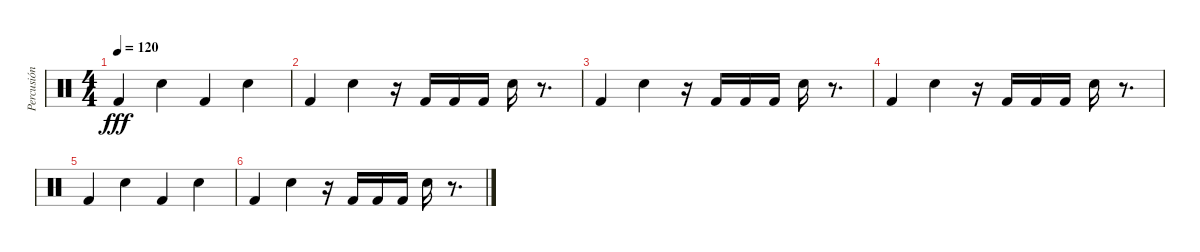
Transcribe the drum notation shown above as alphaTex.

\track ("Percusión" "Percusión") {instrument percussion}
\staff {score}
\articulation defaults
\ts (4 4)
\tempo 120
\clef neutral
\ks c "Kick (hit) 2".4{dy fff} "Snare (hit) 2".4 "Kick (hit) 2".4 "Snare (hit) 2".4
|
"Kick (hit) 2".4 "Snare (hit) 2".4 r.16 "Kick (hit) 2".16 "Kick (hit) 2".16 "Kick (hit) 2".16 "Snare (hit) 2".16 r.8{d} |
"Kick (hit) 2".4 "Snare (hit) 2".4 r.16 "Kick (hit) 2".16 "Kick (hit) 2".16 "Kick (hit) 2".16 "Snare (hit) 2".16 r.8{d} |
"Kick (hit) 2".4 "Snare (hit) 2".4 r.16 "Kick (hit) 2".16 "Kick (hit) 2".16 "Kick (hit) 2".16 "Snare (hit) 2".16 r.8{d} |
"Kick (hit) 2".4 "Snare (hit) 2".4 "Kick (hit) 2".4 "Snare (hit) 2".4 |
"Kick (hit) 2".4 "Snare (hit) 2".4 r.16 "Kick (hit) 2".16 "Kick (hit) 2".16 "Kick (hit) 2".16 "Snare (hit) 2".16 r.8{d}
